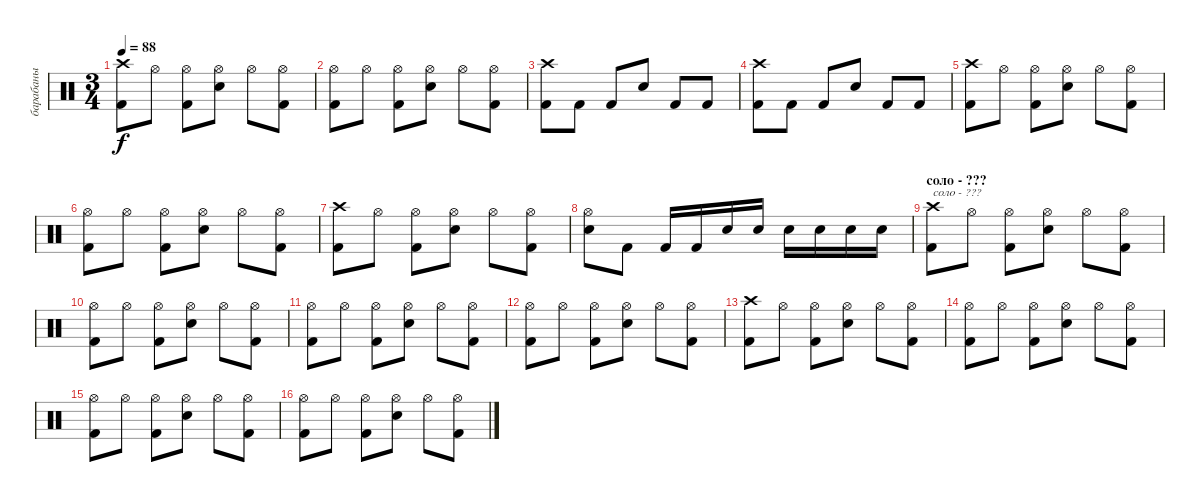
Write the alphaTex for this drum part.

\track ("барабаны" "барабаны") {instrument percussion}
\staff {score}
\articulation defaults
\ts (3 4)
\tempo 88
\clef neutral
\ks c
("Crash high (hit)" "Kick (hit) 2").8{dy f} "Hi-Hat (open)".8 ("Hi-Hat (open)" "Kick (hit) 2").8 ("Hi-Hat (open)" "Snare (hit) 2").8 "Hi-Hat (open)".8 ("Hi-Hat (open)" "Kick (hit) 2").8 |
("Hi-Hat (open)" "Kick (hit) 2").8 "Hi-Hat (open)".8 ("Hi-Hat (open)" "Kick (hit) 2").8 ("Hi-Hat (open)" "Snare (hit) 2").8 "Hi-Hat (open)".8 ("Hi-Hat (open)" "Kick (hit) 2").8 |
("Crash high (hit)" "Kick (hit) 2").8 "Kick (hit) 2".8 "Kick (hit) 2".8 "Snare (hit) 2".8 "Kick (hit) 2".8 "Kick (hit) 2".8 |
("Crash high (hit)" "Kick (hit) 2").8 "Kick (hit) 2".8 "Kick (hit) 2".8 "Snare (hit) 2".8 "Kick (hit) 2".8 "Kick (hit) 2".8 |
("Crash high (hit)" "Kick (hit) 2").8 "Hi-Hat (open)".8 ("Hi-Hat (open)" "Kick (hit) 2").8 ("Hi-Hat (open)" "Snare (hit) 2").8 "Hi-Hat (open)".8 ("Hi-Hat (open)" "Kick (hit) 2").8 |
("Hi-Hat (open)" "Kick (hit) 2").8 "Hi-Hat (open)".8 ("Hi-Hat (open)" "Kick (hit) 2").8 ("Hi-Hat (open)" "Snare (hit) 2").8 "Hi-Hat (open)".8 ("Hi-Hat (open)" "Kick (hit) 2").8 |
("Crash high (hit)" "Kick (hit) 2").8 "Hi-Hat (open)".8 ("Hi-Hat (open)" "Kick (hit) 2").8 ("Hi-Hat (open)" "Snare (hit) 2").8 "Hi-Hat (open)".8 ("Hi-Hat (open)" "Kick (hit) 2").8 |
("Hi-Hat (open)" "Snare (hit) 2").8 "Kick (hit) 2".8 "Kick (hit) 2".16 "Kick (hit) 2".16 "Snare (hit) 2".16 "Snare (hit) 2".16 "Snare (hit) 2".16 "Snare (hit) 2".16 "Snare (hit) 2".16 "Snare (hit) 2".16 |
\section ("" "соло - ???")
("Crash high (hit)" "Kick (hit) 2").8{txt "соло - ???"} "Hi-Hat (open)".8 ("Hi-Hat (open)" "Kick (hit) 2").8 ("Hi-Hat (open)" "Snare (hit) 2").8 "Hi-Hat (open)".8 ("Hi-Hat (open)" "Kick (hit) 2").8 |
("Hi-Hat (open)" "Kick (hit) 2").8 "Hi-Hat (open)".8 ("Hi-Hat (open)" "Kick (hit) 2").8 ("Hi-Hat (open)" "Snare (hit) 2").8 "Hi-Hat (open)".8 ("Hi-Hat (open)" "Kick (hit) 2").8 |
("Hi-Hat (open)" "Kick (hit) 2").8 "Hi-Hat (open)".8 ("Hi-Hat (open)" "Kick (hit) 2").8 ("Hi-Hat (open)" "Snare (hit) 2").8 "Hi-Hat (open)".8 ("Hi-Hat (open)" "Kick (hit) 2").8 |
("Hi-Hat (open)" "Kick (hit) 2").8 "Hi-Hat (open)".8 ("Hi-Hat (open)" "Kick (hit) 2").8 ("Hi-Hat (open)" "Snare (hit) 2").8 "Hi-Hat (open)".8 ("Hi-Hat (open)" "Kick (hit) 2").8 |
("Crash high (hit)" "Kick (hit) 2").8 "Hi-Hat (open)".8 ("Hi-Hat (open)" "Kick (hit) 2").8 ("Hi-Hat (open)" "Snare (hit) 2").8 "Hi-Hat (open)".8 ("Hi-Hat (open)" "Kick (hit) 2").8 |
("Hi-Hat (open)" "Kick (hit) 2").8 "Hi-Hat (open)".8 ("Hi-Hat (open)" "Kick (hit) 2").8 ("Hi-Hat (open)" "Snare (hit) 2").8 "Hi-Hat (open)".8 ("Hi-Hat (open)" "Kick (hit) 2").8 |
("Hi-Hat (open)" "Kick (hit) 2").8 "Hi-Hat (open)".8 ("Hi-Hat (open)" "Kick (hit) 2").8 ("Hi-Hat (open)" "Snare (hit) 2").8 "Hi-Hat (open)".8 ("Hi-Hat (open)" "Kick (hit) 2").8 |
("Hi-Hat (open)" "Kick (hit) 2").8 "Hi-Hat (open)".8 ("Hi-Hat (open)" "Kick (hit) 2").8 ("Hi-Hat (open)" "Snare (hit) 2").8 "Hi-Hat (open)".8 ("Hi-Hat (open)" "Kick (hit) 2").8
